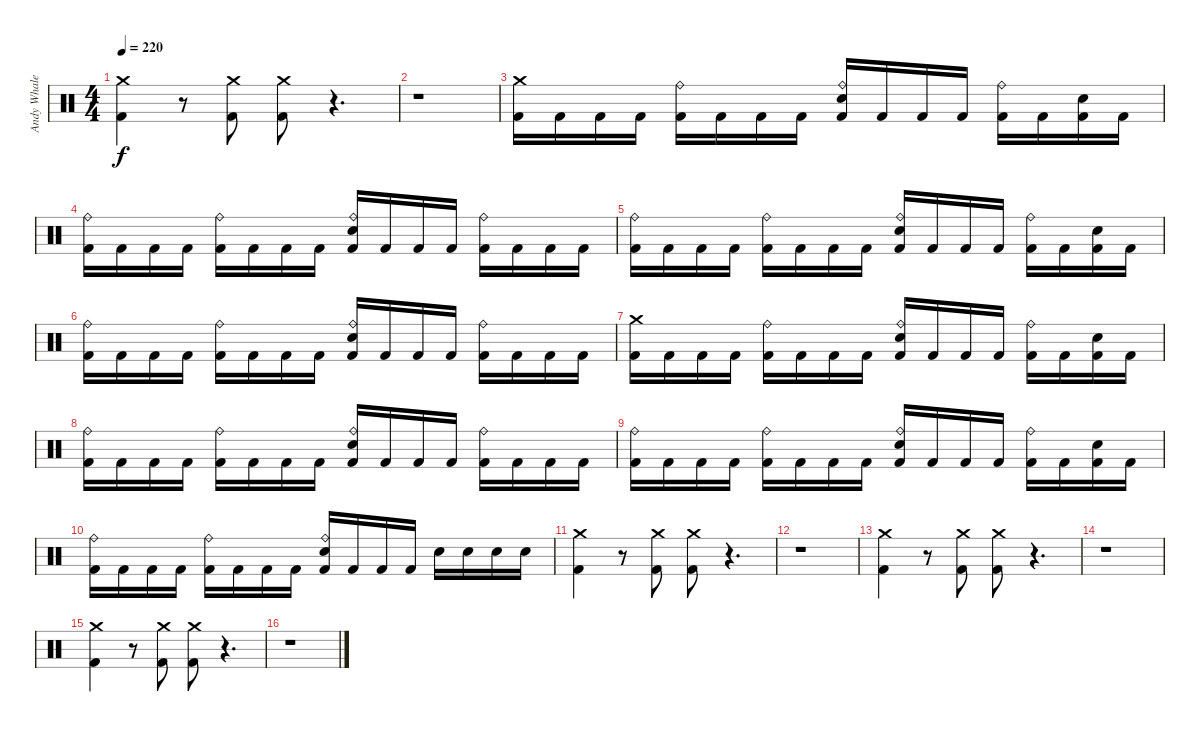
\track ("Andy Whale" "Andy Whale") {instrument percussion}
\staff {score}
\articulation defaults
\ts (4 4)
\tempo 220
\clef neutral
\ks c
("Crash medium (hit)" "Kick (hit) 2").4{dy f} r.8 ("Crash medium (hit)" "Kick (hit) 2").8 ("Crash medium (hit)" "Kick (hit) 2").8 r.4{d} |
r.1 |
("Crash medium (hit)" "Kick (hit) 2").16 "Kick (hit) 2".16 "Kick (hit) 2".16 "Kick (hit) 2".16 ("Ride (bell)" "Kick (hit) 2").16 "Kick (hit) 2".16 "Kick (hit) 2".16 "Kick (hit) 2".16 ("Ride (bell)" "Electric Snare (hit)" "Kick (hit) 2").16 "Kick (hit) 2".16 "Kick (hit) 2".16 "Kick (hit) 2".16 ("Ride (bell)" "Kick (hit) 2").16 "Kick (hit) 2".16 ("Electric Snare (hit)" "Kick (hit) 2").16 "Kick (hit) 2".16 |
("Ride (bell)" "Kick (hit) 2").16 "Kick (hit) 2".16 "Kick (hit) 2".16 "Kick (hit) 2".16 ("Ride (bell)" "Kick (hit) 2").16 "Kick (hit) 2".16 "Kick (hit) 2".16 "Kick (hit) 2".16 ("Ride (bell)" "Electric Snare (hit)" "Kick (hit) 2").16 "Kick (hit) 2".16 "Kick (hit) 2".16 "Kick (hit) 2".16 ("Ride (bell)" "Kick (hit) 2").16 "Kick (hit) 2".16 "Kick (hit) 2".16 "Kick (hit) 2".16 |
("Ride (bell)" "Kick (hit) 2").16 "Kick (hit) 2".16 "Kick (hit) 2".16 "Kick (hit) 2".16 ("Ride (bell)" "Kick (hit) 2").16 "Kick (hit) 2".16 "Kick (hit) 2".16 "Kick (hit) 2".16 ("Ride (bell)" "Electric Snare (hit)" "Kick (hit) 2").16 "Kick (hit) 2".16 "Kick (hit) 2".16 "Kick (hit) 2".16 ("Ride (bell)" "Kick (hit) 2").16 "Kick (hit) 2".16 ("Electric Snare (hit)" "Kick (hit) 2").16 "Kick (hit) 2".16 |
("Ride (bell)" "Kick (hit) 2").16 "Kick (hit) 2".16 "Kick (hit) 2".16 "Kick (hit) 2".16 ("Ride (bell)" "Kick (hit) 2").16 "Kick (hit) 2".16 "Kick (hit) 2".16 "Kick (hit) 2".16 ("Ride (bell)" "Electric Snare (hit)" "Kick (hit) 2").16 "Kick (hit) 2".16 "Kick (hit) 2".16 "Kick (hit) 2".16 ("Ride (bell)" "Kick (hit) 2").16 "Kick (hit) 2".16 "Kick (hit) 2".16 "Kick (hit) 2".16 |
("Crash medium (hit)" "Kick (hit) 2").16 "Kick (hit) 2".16 "Kick (hit) 2".16 "Kick (hit) 2".16 ("Ride (bell)" "Kick (hit) 2").16 "Kick (hit) 2".16 "Kick (hit) 2".16 "Kick (hit) 2".16 ("Ride (bell)" "Electric Snare (hit)" "Kick (hit) 2").16 "Kick (hit) 2".16 "Kick (hit) 2".16 "Kick (hit) 2".16 ("Ride (bell)" "Kick (hit) 2").16 "Kick (hit) 2".16 ("Electric Snare (hit)" "Kick (hit) 2").16 "Kick (hit) 2".16 |
("Ride (bell)" "Kick (hit) 2").16 "Kick (hit) 2".16 "Kick (hit) 2".16 "Kick (hit) 2".16 ("Ride (bell)" "Kick (hit) 2").16 "Kick (hit) 2".16 "Kick (hit) 2".16 "Kick (hit) 2".16 ("Ride (bell)" "Electric Snare (hit)" "Kick (hit) 2").16 "Kick (hit) 2".16 "Kick (hit) 2".16 "Kick (hit) 2".16 ("Ride (bell)" "Kick (hit) 2").16 "Kick (hit) 2".16 "Kick (hit) 2".16 "Kick (hit) 2".16 |
("Ride (bell)" "Kick (hit) 2").16 "Kick (hit) 2".16 "Kick (hit) 2".16 "Kick (hit) 2".16 ("Ride (bell)" "Kick (hit) 2").16 "Kick (hit) 2".16 "Kick (hit) 2".16 "Kick (hit) 2".16 ("Ride (bell)" "Electric Snare (hit)" "Kick (hit) 2").16 "Kick (hit) 2".16 "Kick (hit) 2".16 "Kick (hit) 2".16 ("Ride (bell)" "Kick (hit) 2").16 "Kick (hit) 2".16 ("Electric Snare (hit)" "Kick (hit) 2").16 "Kick (hit) 2".16 |
("Ride (bell)" "Kick (hit) 2").16 "Kick (hit) 2".16 "Kick (hit) 2".16 "Kick (hit) 2".16 ("Ride (bell)" "Kick (hit) 2").16 "Kick (hit) 2".16 "Kick (hit) 2".16 "Kick (hit) 2".16 ("Ride (bell)" "Electric Snare (hit)" "Kick (hit) 2").16 "Kick (hit) 2".16 "Kick (hit) 2".16 "Kick (hit) 2".16 "Electric Snare (hit)".16 "Electric Snare (hit)".16 "Electric Snare (hit)".16 "Electric Snare (hit)".16 |
("Crash medium (hit)" "Kick (hit) 2").4 r.8 ("Crash medium (hit)" "Kick (hit) 2").8 ("Crash medium (hit)" "Kick (hit) 2").8 r.4{d} |
r.1 |
("Crash medium (hit)" "Kick (hit) 2").4 r.8 ("Crash medium (hit)" "Kick (hit) 2").8 ("Crash medium (hit)" "Kick (hit) 2").8 r.4{d} |
r.1 |
("Crash medium (hit)" "Kick (hit) 2").4 r.8 ("Crash medium (hit)" "Kick (hit) 2").8 ("Crash medium (hit)" "Kick (hit) 2").8 r.4{d} |
r.1
